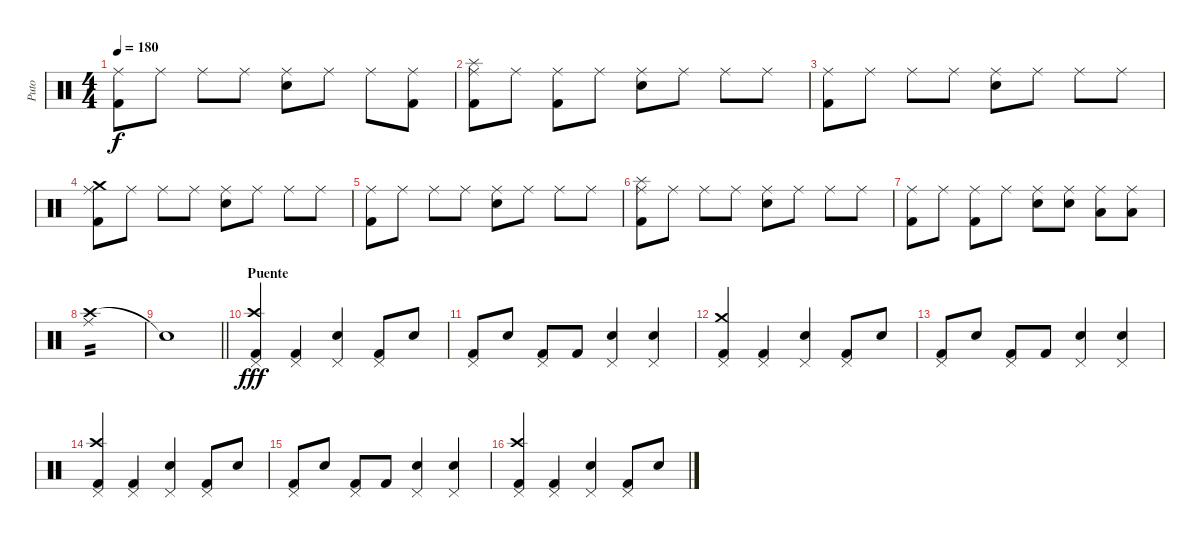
\track ("Puto" "Puto") {instrument percussion}
\staff {score}
\articulation defaults
\ts (4 4)
\tempo 180
\clef neutral
\ks c
("Kick (hit) 2" "Ride (middle)").8{dy f} "Ride (middle)".8 "Ride (middle)".8 "Ride (middle)".8 ("Snare (hit) 2" "Ride (middle)").8 "Ride (middle)".8 "Ride (middle)".8 ("Kick (hit) 2" "Ride (middle)").8 |
("Kick (hit) 2" "Splash (hit)" "Ride (middle)").8 "Ride (middle)".8 ("Kick (hit) 2" "Ride (middle)").8 "Ride (middle)".8 ("Snare (hit) 2" "Ride (middle)").8 "Ride (middle)".8 "Ride (middle)".8 "Ride (middle)".8 |
("Kick (hit) 2" "Ride (middle)").8 "Ride (middle)".8 "Ride (middle)".8 "Ride (middle)".8 ("Snare (hit) 2" "Ride (middle)").8 "Ride (middle)".8 "Ride (middle)".8 "Ride (middle)".8 |
("Kick (hit) 2" "Crash medium (hit)" "Ride (middle)").8 "Ride (middle)".8 "Ride (middle)".8 "Ride (middle)".8 ("Snare (hit) 2" "Ride (middle)").8 "Ride (middle)".8 "Ride (middle)".8 "Ride (middle)".8 |
("Kick (hit) 2" "Ride (middle)").8 "Ride (middle)".8 "Ride (middle)".8 "Ride (middle)".8 ("Snare (hit) 2" "Ride (middle)").8 "Ride (middle)".8 "Ride (middle)".8 "Ride (middle)".8 |
("Kick (hit) 2" "Splash (hit)" "Ride (middle)").8 "Ride (middle)".8 "Ride (middle)".8 "Ride (middle)".8 ("Snare (hit) 2" "Ride (middle)").8 "Ride (middle)".8 "Ride (middle)".8 "Ride (middle)".8 |
("Kick (hit) 2" "Ride (middle)").8 "Ride (middle)".8 ("Kick (hit) 2" "Ride (middle)").8 "Ride (middle)".8 ("Snare (hit) 2" "Ride (middle)").8 ("Snare (hit) 2" "Ride (middle)").8 ("Low Tom (hit)" "Ride (middle)").8 ("Low Tom (hit)" "Ride (middle)").8 |
("Crash high (hit)" "Ride (middle)").1{tp 2} |
\barLineRight lightlight "Snare (hit)"{t}.1
|
\section ("" "Puente")
("Kick (hit) 2" "Crash high (hit)" "Pedal Hi-Hat (hit)").4{dy fff} ("Kick (hit) 2" "Pedal Hi-Hat (hit)").4 ("Snare (hit) 2" "Pedal Hi-Hat (hit)").4 ("Kick (hit) 2" "Pedal Hi-Hat (hit)").8 "Snare (hit) 2".8 |
("Kick (hit) 2" "Pedal Hi-Hat (hit)").8 "Snare (hit) 2".8 ("Kick (hit) 2" "Pedal Hi-Hat (hit)").8 "Kick (hit) 2".8 ("Snare (hit) 2" "Pedal Hi-Hat (hit)").4 ("Snare (hit) 2" "Pedal Hi-Hat (hit)").4 |
("Kick (hit) 2" "Crash medium (hit)" "Pedal Hi-Hat (hit)").4 ("Kick (hit) 2" "Pedal Hi-Hat (hit)").4 ("Snare (hit) 2" "Pedal Hi-Hat (hit)").4 ("Kick (hit) 2" "Pedal Hi-Hat (hit)").8 "Snare (hit) 2".8 |
("Kick (hit) 2" "Pedal Hi-Hat (hit)").8 "Snare (hit) 2".8 ("Kick (hit) 2" "Pedal Hi-Hat (hit)").8 "Kick (hit) 2".8 ("Snare (hit) 2" "Pedal Hi-Hat (hit)").4 ("Snare (hit) 2" "Pedal Hi-Hat (hit)").4 |
("Kick (hit) 2" "Crash high (hit)" "Pedal Hi-Hat (hit)").4 ("Kick (hit) 2" "Pedal Hi-Hat (hit)").4 ("Snare (hit) 2" "Pedal Hi-Hat (hit)").4 ("Kick (hit) 2" "Pedal Hi-Hat (hit)").8 "Snare (hit) 2".8 |
("Kick (hit) 2" "Pedal Hi-Hat (hit)").8 "Snare (hit) 2".8 ("Kick (hit) 2" "Pedal Hi-Hat (hit)").8 "Kick (hit) 2".8 ("Snare (hit) 2" "Pedal Hi-Hat (hit)").4 ("Snare (hit) 2" "Pedal Hi-Hat (hit)").4 |
("Kick (hit) 2" "Crash high (hit)" "Pedal Hi-Hat (hit)").4 ("Kick (hit) 2" "Pedal Hi-Hat (hit)").4 ("Snare (hit) 2" "Pedal Hi-Hat (hit)").4 ("Kick (hit) 2" "Pedal Hi-Hat (hit)").8 "Snare (hit) 2".8
